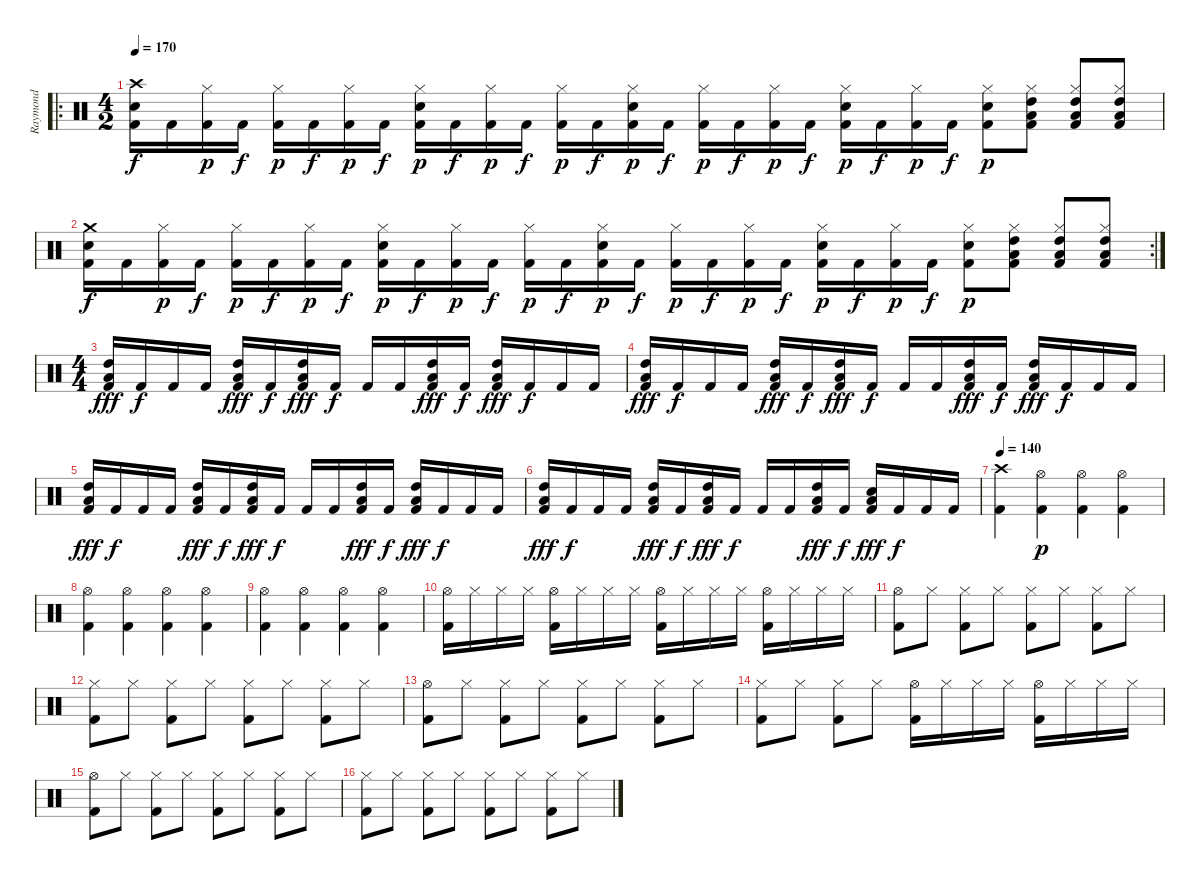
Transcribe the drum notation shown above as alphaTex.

\track ("Raymond" "Raymond") {instrument percussion}
\staff {score}
\articulation defaults
\ro
\ts (4 2)
\tempo 170
\clef neutral
\ks c
("Crash high (hit)" "Electric Snare (hit)" "Kick (hit) 2").16{dy f} "Kick (hit) 2".16 ("Hi-Hat (closed)" "Kick (hit) 2").16{dy p} "Kick (hit) 2".16{dy f} ("Hi-Hat (closed)" "Kick (hit) 2").16{dy p} "Kick (hit) 2".16{dy f} ("Hi-Hat (closed)" "Kick (hit) 2").16{dy p} "Kick (hit) 2".16{dy f} ("Hi-Hat (closed)" "Electric Snare (hit)" "Kick (hit) 2").16{dy p} "Kick (hit) 2".16{dy f} ("Hi-Hat (closed)" "Kick (hit) 2").16{dy p} "Kick (hit) 2".16{dy f} ("Hi-Hat (closed)" "Kick (hit) 2").16{dy p} "Kick (hit) 2".16{dy f} ("Hi-Hat (closed)" "Electric Snare (hit)" "Kick (hit) 2").16{dy p} "Kick (hit) 2".16{dy f} ("Hi-Hat (closed)" "Kick (hit) 2").16{dy p} "Kick (hit) 2".16{dy f} ("Hi-Hat (closed)" "Kick (hit) 2").16{dy p} "Kick (hit) 2".16{dy f} ("Hi-Hat (closed)" "Electric Snare (hit)" "Kick (hit) 2").16{dy p} "Kick (hit) 2".16{dy f} ("Hi-Hat (closed)" "Kick (hit) 2").16{dy p} "Kick (hit) 2".16{dy f} ("Hi-Hat (closed)" "Electric Snare (hit)" "Kick (hit) 2").8{dy p} ("Hi-Hat (closed)" "High Tom (hit)" "Low Tom (hit)" "Kick (hit) 2").8 ("Hi-Hat (closed)" "High Tom (hit)" "Low Tom (hit)" "Kick (hit) 2").8 ("Hi-Hat (closed)" "High Tom (hit)" "Low Tom (hit)" "Kick (hit) 2").8 |
\rc 2
("Crash medium (hit)" "Electric Snare (hit)" "Kick (hit) 2").16{dy f} "Kick (hit) 2".16 ("Hi-Hat (closed)" "Kick (hit) 2").16{dy p} "Kick (hit) 2".16{dy f} ("Hi-Hat (closed)" "Kick (hit) 2").16{dy p} "Kick (hit) 2".16{dy f} ("Hi-Hat (closed)" "Kick (hit) 2").16{dy p} "Kick (hit) 2".16{dy f} ("Hi-Hat (closed)" "Electric Snare (hit)" "Kick (hit) 2").16{dy p} "Kick (hit) 2".16{dy f} ("Hi-Hat (closed)" "Kick (hit) 2").16{dy p} "Kick (hit) 2".16{dy f} ("Hi-Hat (closed)" "Kick (hit) 2").16{dy p} "Kick (hit) 2".16{dy f} ("Hi-Hat (closed)" "Electric Snare (hit)" "Kick (hit) 2").16{dy p} "Kick (hit) 2".16{dy f} ("Hi-Hat (closed)" "Kick (hit) 2").16{dy p} "Kick (hit) 2".16{dy f} ("Hi-Hat (closed)" "Kick (hit) 2").16{dy p} "Kick (hit) 2".16{dy f} ("Hi-Hat (closed)" "Electric Snare (hit)" "Kick (hit) 2").16{dy p} "Kick (hit) 2".16{dy f} ("Hi-Hat (closed)" "Kick (hit) 2").16{dy p} "Kick (hit) 2".16{dy f} ("Hi-Hat (closed)" "Electric Snare (hit)" "Kick (hit) 2").8{dy p} ("Hi-Hat (closed)" "High Tom (hit)" "Low Tom (hit)" "Kick (hit) 2").8 ("Hi-Hat (closed)" "High Tom (hit)" "Low Tom (hit)" "Kick (hit) 2").8 ("Hi-Hat (closed)" "High Tom (hit)" "Low Tom (hit)" "Kick (hit) 2").8 |
\ts (4 4)
("High Tom (hit)" "Low Tom (hit)" "Kick (hit) 2").16{dy fff} "Kick (hit) 2".16{dy f} "Kick (hit) 2".16 "Kick (hit) 2".16 ("High Tom (hit)" "Low Tom (hit)" "Kick (hit) 2").16{dy fff} "Kick (hit) 2".16{dy f} ("High Tom (hit)" "Low Tom (hit)" "Kick (hit) 2").16{dy fff} "Kick (hit) 2".16{dy f} "Kick (hit) 2".16 "Kick (hit) 2".16 ("High Tom (hit)" "Low Tom (hit)" "Kick (hit) 2").16{dy fff} "Kick (hit) 2".16{dy f} ("High Tom (hit)" "Low Tom (hit)" "Kick (hit) 2").16{dy fff} "Kick (hit) 2".16{dy f} "Kick (hit) 2".16 "Kick (hit) 2".16 |
("High Tom (hit)" "Low Tom (hit)" "Kick (hit) 2").16{dy fff} "Kick (hit) 2".16{dy f} "Kick (hit) 2".16 "Kick (hit) 2".16 ("High Tom (hit)" "Low Tom (hit)" "Kick (hit) 2").16{dy fff} "Kick (hit) 2".16{dy f} ("High Tom (hit)" "Low Tom (hit)" "Kick (hit) 2").16{dy fff} "Kick (hit) 2".16{dy f} "Kick (hit) 2".16 "Kick (hit) 2".16 ("High Tom (hit)" "Low Tom (hit)" "Kick (hit) 2").16{dy fff} "Kick (hit) 2".16{dy f} ("High Tom (hit)" "Low Tom (hit)" "Kick (hit) 2").16{dy fff} "Kick (hit) 2".16{dy f} "Kick (hit) 2".16 "Kick (hit) 2".16 |
("High Tom (hit)" "Low Tom (hit)" "Kick (hit) 2").16{dy fff} "Kick (hit) 2".16{dy f} "Kick (hit) 2".16 "Kick (hit) 2".16 ("High Tom (hit)" "Low Tom (hit)" "Kick (hit) 2").16{dy fff} "Kick (hit) 2".16{dy f} ("High Tom (hit)" "Low Tom (hit)" "Kick (hit) 2").16{dy fff} "Kick (hit) 2".16{dy f} "Kick (hit) 2".16 "Kick (hit) 2".16 ("High Tom (hit)" "Low Tom (hit)" "Kick (hit) 2").16{dy fff} "Kick (hit) 2".16{dy f} ("High Tom (hit)" "Low Tom (hit)" "Kick (hit) 2").16{dy fff} "Kick (hit) 2".16{dy f} "Kick (hit) 2".16 "Kick (hit) 2".16 |
("High Tom (hit)" "Low Tom (hit)" "Kick (hit) 2").16{dy fff} "Kick (hit) 2".16{dy f} "Kick (hit) 2".16 "Kick (hit) 2".16 ("High Tom (hit)" "Low Tom (hit)" "Kick (hit) 2").16{dy fff} "Kick (hit) 2".16{dy f} ("High Tom (hit)" "Low Tom (hit)" "Kick (hit) 2").16{dy fff} "Kick (hit) 2".16{dy f} "Kick (hit) 2".16 "Kick (hit) 2".16 ("High Tom (hit)" "Low Tom (hit)" "Kick (hit) 2").16{dy fff} "Kick (hit) 2".16{dy f} ("Electric Snare (hit)" "Low Tom (hit)" "Kick (hit) 2").16{dy fff} "Kick (hit) 2".16{dy f} "Kick (hit) 2".16 "Kick (hit) 2".16 |
\tempo 140
("Crash high (hit)" "Kick (hit) 2").4 ("Hi-Hat (open)" "Kick (hit) 2").4{dy p} ("Hi-Hat (open)" "Kick (hit) 2").4 ("Hi-Hat (open)" "Kick (hit) 2").4 |
("Hi-Hat (open)" "Kick (hit) 2").4 ("Hi-Hat (open)" "Kick (hit) 2").4 ("Hi-Hat (open)" "Kick (hit) 2").4 ("Hi-Hat (open)" "Kick (hit) 2").4 |
("Hi-Hat (open)" "Kick (hit) 2").4 ("Hi-Hat (open)" "Kick (hit) 2").4 ("Hi-Hat (open)" "Kick (hit) 2").4 ("Hi-Hat (open)" "Kick (hit) 2").4 |
("Hi-Hat (open)" "Kick (hit) 2").16 "Hi-Hat (closed)".16 "Hi-Hat (closed)".16 "Hi-Hat (closed)".16 ("Hi-Hat (open)" "Kick (hit) 2").16 "Hi-Hat (closed)".16 "Hi-Hat (closed)".16 "Hi-Hat (closed)".16 ("Hi-Hat (open)" "Kick (hit) 2").16 "Hi-Hat (closed)".16 "Hi-Hat (closed)".16 "Hi-Hat (closed)".16 ("Hi-Hat (open)" "Kick (hit) 2").16 "Hi-Hat (closed)".16 "Hi-Hat (closed)".16 "Hi-Hat (closed)".16 |
("Hi-Hat (open)" "Kick (hit) 2").8 "Hi-Hat (closed)".8 ("Hi-Hat (closed)" "Kick (hit) 2").8 "Hi-Hat (closed)".8 ("Hi-Hat (closed)" "Kick (hit) 2").8 "Hi-Hat (closed)".8 ("Hi-Hat (closed)" "Kick (hit) 2").8 "Hi-Hat (closed)".8 |
("Hi-Hat (closed)" "Kick (hit) 2").8 "Hi-Hat (closed)".8 ("Hi-Hat (closed)" "Kick (hit) 2").8 "Hi-Hat (closed)".8 ("Hi-Hat (closed)" "Kick (hit) 2").8 "Hi-Hat (closed)".8 ("Hi-Hat (closed)" "Kick (hit) 2").8 "Hi-Hat (closed)".8 |
("Hi-Hat (open)" "Kick (hit) 2").8 "Hi-Hat (closed)".8 ("Hi-Hat (closed)" "Kick (hit) 2").8 "Hi-Hat (closed)".8 ("Hi-Hat (closed)" "Kick (hit) 2").8 "Hi-Hat (closed)".8 ("Hi-Hat (closed)" "Kick (hit) 2").8 "Hi-Hat (closed)".8 |
("Hi-Hat (closed)" "Kick (hit) 2").8 "Hi-Hat (closed)".8 ("Hi-Hat (closed)" "Kick (hit) 2").8 "Hi-Hat (closed)".8 ("Hi-Hat (open)" "Kick (hit) 2").16 "Hi-Hat (closed)".16 "Hi-Hat (closed)".16 "Hi-Hat (closed)".16 ("Hi-Hat (open)" "Kick (hit) 2").16 "Hi-Hat (closed)".16 "Hi-Hat (closed)".16 "Hi-Hat (closed)".16 |
("Hi-Hat (open)" "Kick (hit) 2").8 "Hi-Hat (closed)".8 ("Hi-Hat (closed)" "Kick (hit) 2").8 "Hi-Hat (closed)".8 ("Hi-Hat (closed)" "Kick (hit) 2").8 "Hi-Hat (closed)".8 ("Hi-Hat (closed)" "Kick (hit) 2").8 "Hi-Hat (closed)".8 |
("Hi-Hat (closed)" "Kick (hit) 2").8 "Hi-Hat (closed)".8 ("Hi-Hat (closed)" "Kick (hit) 2").8 "Hi-Hat (closed)".8 ("Hi-Hat (closed)" "Kick (hit) 2").8 "Hi-Hat (closed)".8 ("Hi-Hat (closed)" "Kick (hit) 2").8 "Hi-Hat (closed)".8
